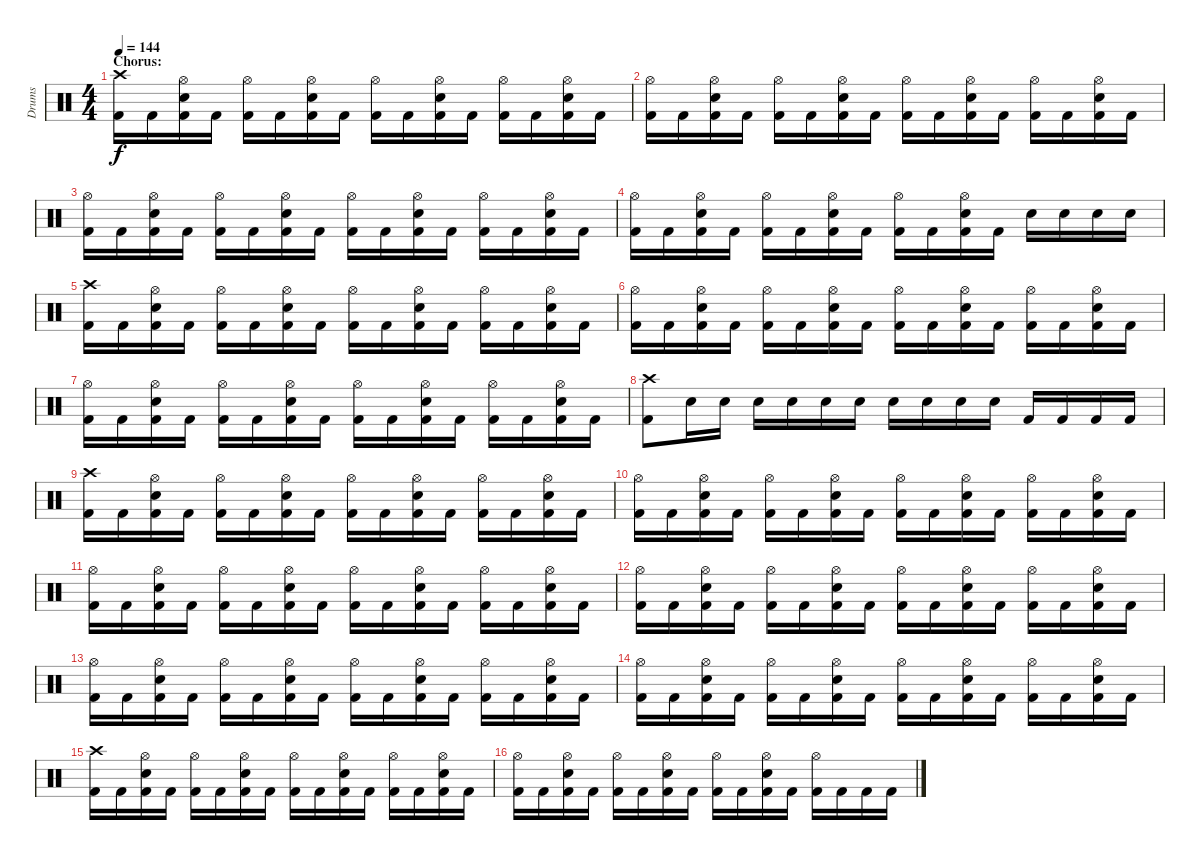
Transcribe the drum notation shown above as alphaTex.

\track ("Drums" "Drums") {instrument percussion}
\staff {score}
\articulation defaults
\ts (4 4)
\section ("" "Chorus:")
\tempo 144
\clef neutral
\ks c
("Crash high (hit)" "Kick (hit) 2").16{dy f} "Kick (hit) 2".16 ("Hi-Hat (open)" "Snare (hit) 2" "Kick (hit) 2").16 "Kick (hit) 2".16 ("Hi-Hat (open)" "Kick (hit) 2").16 "Kick (hit) 2".16 ("Hi-Hat (open)" "Snare (hit) 2" "Kick (hit) 2").16 "Kick (hit) 2".16 ("Hi-Hat (open)" "Kick (hit) 2").16 "Kick (hit) 2".16 ("Hi-Hat (open)" "Snare (hit) 2" "Kick (hit) 2").16 "Kick (hit) 2".16 ("Hi-Hat (open)" "Kick (hit) 2").16 "Kick (hit) 2".16 ("Hi-Hat (open)" "Snare (hit) 2" "Kick (hit) 2").16 "Kick (hit) 2".16 |
("Hi-Hat (open)" "Kick (hit) 2").16 "Kick (hit) 2".16 ("Hi-Hat (open)" "Snare (hit) 2" "Kick (hit) 2").16 "Kick (hit) 2".16 ("Hi-Hat (open)" "Kick (hit) 2").16 "Kick (hit) 2".16 ("Hi-Hat (open)" "Snare (hit) 2" "Kick (hit) 2").16 "Kick (hit) 2".16 ("Hi-Hat (open)" "Kick (hit) 2").16 "Kick (hit) 2".16 ("Hi-Hat (open)" "Snare (hit) 2" "Kick (hit) 2").16 "Kick (hit) 2".16 ("Hi-Hat (open)" "Kick (hit) 2").16 "Kick (hit) 2".16 ("Hi-Hat (open)" "Snare (hit) 2" "Kick (hit) 2").16 "Kick (hit) 2".16 |
("Hi-Hat (open)" "Kick (hit) 2").16 "Kick (hit) 2".16 ("Hi-Hat (open)" "Snare (hit) 2" "Kick (hit) 2").16 "Kick (hit) 2".16 ("Hi-Hat (open)" "Kick (hit) 2").16 "Kick (hit) 2".16 ("Hi-Hat (open)" "Snare (hit) 2" "Kick (hit) 2").16 "Kick (hit) 2".16 ("Hi-Hat (open)" "Kick (hit) 2").16 "Kick (hit) 2".16 ("Hi-Hat (open)" "Snare (hit) 2" "Kick (hit) 2").16 "Kick (hit) 2".16 ("Hi-Hat (open)" "Kick (hit) 2").16 "Kick (hit) 2".16 ("Hi-Hat (open)" "Snare (hit) 2" "Kick (hit) 2").16 "Kick (hit) 2".16 |
("Hi-Hat (open)" "Kick (hit) 2").16 "Kick (hit) 2".16 ("Hi-Hat (open)" "Snare (hit) 2" "Kick (hit) 2").16 "Kick (hit) 2".16 ("Hi-Hat (open)" "Kick (hit) 2").16 "Kick (hit) 2".16 ("Hi-Hat (open)" "Snare (hit) 2" "Kick (hit) 2").16 "Kick (hit) 2".16 ("Hi-Hat (open)" "Kick (hit) 2").16 "Kick (hit) 2".16 ("Hi-Hat (open)" "Snare (hit) 2" "Kick (hit) 2").16 "Kick (hit) 2".16 "Snare (hit) 2".16 "Snare (hit) 2".16 "Snare (hit) 2".16 "Snare (hit) 2".16 |
("Crash high (hit)" "Kick (hit) 2").16 "Kick (hit) 2".16 ("Hi-Hat (open)" "Snare (hit) 2" "Kick (hit) 2").16 "Kick (hit) 2".16 ("Hi-Hat (open)" "Kick (hit) 2").16 "Kick (hit) 2".16 ("Hi-Hat (open)" "Snare (hit) 2" "Kick (hit) 2").16 "Kick (hit) 2".16 ("Hi-Hat (open)" "Kick (hit) 2").16 "Kick (hit) 2".16 ("Hi-Hat (open)" "Snare (hit) 2" "Kick (hit) 2").16 "Kick (hit) 2".16 ("Hi-Hat (open)" "Kick (hit) 2").16 "Kick (hit) 2".16 ("Hi-Hat (open)" "Snare (hit) 2" "Kick (hit) 2").16 "Kick (hit) 2".16 |
("Hi-Hat (open)" "Kick (hit) 2").16 "Kick (hit) 2".16 ("Hi-Hat (open)" "Snare (hit) 2" "Kick (hit) 2").16 "Kick (hit) 2".16 ("Hi-Hat (open)" "Kick (hit) 2").16 "Kick (hit) 2".16 ("Hi-Hat (open)" "Snare (hit) 2" "Kick (hit) 2").16 "Kick (hit) 2".16 ("Hi-Hat (open)" "Kick (hit) 2").16 "Kick (hit) 2".16 ("Hi-Hat (open)" "Snare (hit) 2" "Kick (hit) 2").16 "Kick (hit) 2".16 ("Hi-Hat (open)" "Kick (hit) 2").16 "Kick (hit) 2".16 ("Hi-Hat (open)" "Snare (hit) 2" "Kick (hit) 2").16 "Kick (hit) 2".16 |
("Hi-Hat (open)" "Kick (hit) 2").16 "Kick (hit) 2".16 ("Hi-Hat (open)" "Snare (hit) 2" "Kick (hit) 2").16 "Kick (hit) 2".16 ("Hi-Hat (open)" "Kick (hit) 2").16 "Kick (hit) 2".16 ("Hi-Hat (open)" "Snare (hit) 2" "Kick (hit) 2").16 "Kick (hit) 2".16 ("Hi-Hat (open)" "Kick (hit) 2").16 "Kick (hit) 2".16 ("Hi-Hat (open)" "Snare (hit) 2" "Kick (hit) 2").16 "Kick (hit) 2".16 ("Hi-Hat (open)" "Kick (hit) 2").16 "Kick (hit) 2".16 ("Hi-Hat (open)" "Snare (hit) 2" "Kick (hit) 2").16 "Kick (hit) 2".16 |
("Crash high (hit)" "Kick (hit) 2").8 "Snare (hit) 2".16 "Snare (hit) 2".16 "Snare (hit) 2".16 "Snare (hit) 2".16 "Snare (hit) 2".16 "Snare (hit) 2".16 "Snare (hit) 2".16 "Snare (hit) 2".16 "Snare (hit) 2".16 "Snare (hit) 2".16 "Kick (hit) 2".16 "Kick (hit) 2".16 "Kick (hit) 2".16 "Kick (hit) 2".16 |
("Crash high (hit)" "Kick (hit) 2").16 "Kick (hit) 2".16 ("Hi-Hat (open)" "Snare (hit) 2" "Kick (hit) 2").16 "Kick (hit) 2".16 ("Hi-Hat (open)" "Kick (hit) 2").16 "Kick (hit) 2".16 ("Hi-Hat (open)" "Snare (hit) 2" "Kick (hit) 2").16 "Kick (hit) 2".16 ("Hi-Hat (open)" "Kick (hit) 2").16 "Kick (hit) 2".16 ("Hi-Hat (open)" "Snare (hit) 2" "Kick (hit) 2").16 "Kick (hit) 2".16 ("Hi-Hat (open)" "Kick (hit) 2").16 "Kick (hit) 2".16 ("Hi-Hat (open)" "Snare (hit) 2" "Kick (hit) 2").16 "Kick (hit) 2".16 |
("Hi-Hat (open)" "Kick (hit) 2").16 "Kick (hit) 2".16 ("Hi-Hat (open)" "Snare (hit) 2" "Kick (hit) 2").16 "Kick (hit) 2".16 ("Hi-Hat (open)" "Kick (hit) 2").16 "Kick (hit) 2".16 ("Hi-Hat (open)" "Snare (hit) 2" "Kick (hit) 2").16 "Kick (hit) 2".16 ("Hi-Hat (open)" "Kick (hit) 2").16 "Kick (hit) 2".16 ("Hi-Hat (open)" "Snare (hit) 2" "Kick (hit) 2").16 "Kick (hit) 2".16 ("Hi-Hat (open)" "Kick (hit) 2").16 "Kick (hit) 2".16 ("Hi-Hat (open)" "Snare (hit) 2" "Kick (hit) 2").16 "Kick (hit) 2".16 |
("Hi-Hat (open)" "Kick (hit) 2").16 "Kick (hit) 2".16 ("Hi-Hat (open)" "Snare (hit) 2" "Kick (hit) 2").16 "Kick (hit) 2".16 ("Hi-Hat (open)" "Kick (hit) 2").16 "Kick (hit) 2".16 ("Hi-Hat (open)" "Snare (hit) 2" "Kick (hit) 2").16 "Kick (hit) 2".16 ("Hi-Hat (open)" "Kick (hit) 2").16 "Kick (hit) 2".16 ("Hi-Hat (open)" "Snare (hit) 2" "Kick (hit) 2").16 "Kick (hit) 2".16 ("Hi-Hat (open)" "Kick (hit) 2").16 "Kick (hit) 2".16 ("Hi-Hat (open)" "Snare (hit) 2" "Kick (hit) 2").16 "Kick (hit) 2".16 |
("Hi-Hat (open)" "Kick (hit) 2").16 "Kick (hit) 2".16 ("Hi-Hat (open)" "Snare (hit) 2" "Kick (hit) 2").16 "Kick (hit) 2".16 ("Hi-Hat (open)" "Kick (hit) 2").16 "Kick (hit) 2".16 ("Hi-Hat (open)" "Snare (hit) 2" "Kick (hit) 2").16 "Kick (hit) 2".16 ("Hi-Hat (open)" "Kick (hit) 2").16 "Kick (hit) 2".16 ("Hi-Hat (open)" "Snare (hit) 2" "Kick (hit) 2").16 "Kick (hit) 2".16 ("Hi-Hat (open)" "Kick (hit) 2").16 "Kick (hit) 2".16 ("Hi-Hat (open)" "Snare (hit) 2" "Kick (hit) 2").16 "Kick (hit) 2".16 |
("Hi-Hat (open)" "Kick (hit) 2").16 "Kick (hit) 2".16 ("Hi-Hat (open)" "Snare (hit) 2" "Kick (hit) 2").16 "Kick (hit) 2".16 ("Hi-Hat (open)" "Kick (hit) 2").16 "Kick (hit) 2".16 ("Hi-Hat (open)" "Snare (hit) 2" "Kick (hit) 2").16 "Kick (hit) 2".16 ("Hi-Hat (open)" "Kick (hit) 2").16 "Kick (hit) 2".16 ("Hi-Hat (open)" "Snare (hit) 2" "Kick (hit) 2").16 "Kick (hit) 2".16 ("Hi-Hat (open)" "Kick (hit) 2").16 "Kick (hit) 2".16 ("Hi-Hat (open)" "Snare (hit) 2" "Kick (hit) 2").16 "Kick (hit) 2".16 |
("Hi-Hat (open)" "Kick (hit) 2").16 "Kick (hit) 2".16 ("Hi-Hat (open)" "Snare (hit) 2" "Kick (hit) 2").16 "Kick (hit) 2".16 ("Hi-Hat (open)" "Kick (hit) 2").16 "Kick (hit) 2".16 ("Hi-Hat (open)" "Snare (hit) 2" "Kick (hit) 2").16 "Kick (hit) 2".16 ("Hi-Hat (open)" "Kick (hit) 2").16 "Kick (hit) 2".16 ("Hi-Hat (open)" "Snare (hit) 2" "Kick (hit) 2").16 "Kick (hit) 2".16 ("Hi-Hat (open)" "Kick (hit) 2").16 "Kick (hit) 2".16 ("Hi-Hat (open)" "Snare (hit) 2" "Kick (hit) 2").16 "Kick (hit) 2".16 |
("Crash high (hit)" "Kick (hit) 2").16 "Kick (hit) 2".16 ("Hi-Hat (open)" "Snare (hit) 2" "Kick (hit) 2").16 "Kick (hit) 2".16 ("Hi-Hat (open)" "Kick (hit) 2").16 "Kick (hit) 2".16 ("Hi-Hat (open)" "Snare (hit) 2" "Kick (hit) 2").16 "Kick (hit) 2".16 ("Hi-Hat (open)" "Kick (hit) 2").16 "Kick (hit) 2".16 ("Hi-Hat (open)" "Snare (hit) 2" "Kick (hit) 2").16 "Kick (hit) 2".16 ("Hi-Hat (open)" "Kick (hit) 2").16 "Kick (hit) 2".16 ("Hi-Hat (open)" "Snare (hit) 2" "Kick (hit) 2").16 "Kick (hit) 2".16 |
("Hi-Hat (open)" "Kick (hit) 2").16 "Kick (hit) 2".16 ("Hi-Hat (open)" "Snare (hit) 2" "Kick (hit) 2").16 "Kick (hit) 2".16 ("Hi-Hat (open)" "Kick (hit) 2").16 "Kick (hit) 2".16 ("Hi-Hat (open)" "Snare (hit) 2" "Kick (hit) 2").16 "Kick (hit) 2".16 ("Hi-Hat (open)" "Kick (hit) 2").16 "Kick (hit) 2".16 ("Hi-Hat (open)" "Snare (hit) 2" "Kick (hit) 2").16 "Kick (hit) 2".16 ("Hi-Hat (open)" "Kick (hit) 2").16 "Kick (hit) 2".16 "Kick (hit) 2".16 "Kick (hit) 2".16
